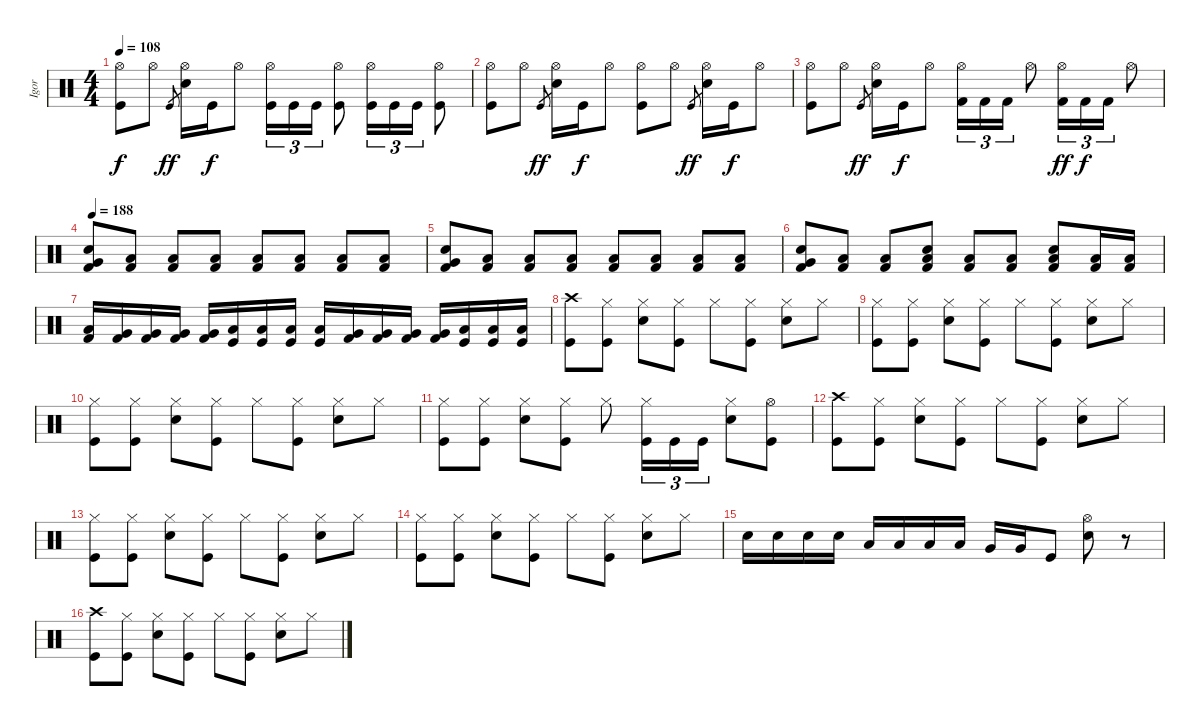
\track ("Igor" "Igor") {instrument percussion}
\staff {score}
\articulation defaults
\ts (4 4)
\tempo 108
\clef neutral
\ks c
("Hi-Hat (open)" "Kick (hit)").8{dy f} "Hi-Hat (open)".8 "Kick (hit)".8{gr dy ff} ("Hi-Hat (open)" "Snare (hit) 2").16 "Kick (hit)".16{dy f} "Hi-Hat (open)".8 ("Hi-Hat (open)" "Kick (hit)").16{tu (3 2)} "Kick (hit)".16{tu (3 2)} "Kick (hit)".16{tu (3 2)} ("Hi-Hat (open)" "Kick (hit)").8 ("Hi-Hat (open)" "Kick (hit)").16{tu (3 2)} "Kick (hit)".16{tu (3 2)} "Kick (hit)".16{tu (3 2)} ("Hi-Hat (open)" "Kick (hit)").8 |
("Hi-Hat (open)" "Kick (hit)").8 "Hi-Hat (open)".8 "Kick (hit)".8{gr dy ff} ("Hi-Hat (open)" "Snare (hit) 2").16 "Kick (hit)".16{dy f} "Hi-Hat (open)".8 ("Hi-Hat (open)" "Kick (hit)").8 "Hi-Hat (open)".8 "Kick (hit)".8{gr dy ff} ("Hi-Hat (open)" "Snare (hit) 2").16 "Kick (hit)".16{dy f} "Hi-Hat (open)".8 |
("Hi-Hat (open)" "Kick (hit)").8 "Hi-Hat (open)".8 "Kick (hit)".8{gr dy ff} ("Hi-Hat (open)" "Snare (hit) 2").16 "Kick (hit)".16{dy f} "Hi-Hat (open)".8 ("Hi-Hat (open)" "Kick (hit) 2").16{tu (3 2)} "Kick (hit) 2".16{tu (3 2)} "Kick (hit) 2".16{tu (3 2)} "Hi-Hat (open)".8 ("Hi-Hat (open)" "Kick (hit) 2").16{tu (3 2) dy ff} "Kick (hit) 2".16{tu (3 2) dy f} "Kick (hit) 2".16{tu (3 2)} "Hi-Hat (open)".8 |
\tempo 188
("Very Low Tom (hit)" "Snare (hit) 2" "Kick (hit) 2").8 ("Low Floor Tom (hit)" "Kick (hit) 2").8 ("Low Floor Tom (hit)" "Kick (hit) 2").8 ("Low Floor Tom (hit)" "Kick (hit) 2").8 ("Low Floor Tom (hit)" "Kick (hit) 2").8 ("Low Floor Tom (hit)" "Kick (hit) 2").8 ("Low Floor Tom (hit)" "Kick (hit) 2").8 ("Low Floor Tom (hit)" "Kick (hit) 2").8 |
("Very Low Tom (hit)" "Snare (hit) 2" "Kick (hit) 2").8 ("Low Floor Tom (hit)" "Kick (hit) 2").8 ("Low Floor Tom (hit)" "Kick (hit) 2").8 ("Low Floor Tom (hit)" "Kick (hit) 2").8 ("Low Floor Tom (hit)" "Kick (hit) 2").8 ("Low Floor Tom (hit)" "Kick (hit) 2").8 ("Low Floor Tom (hit)" "Kick (hit) 2").8 ("Low Floor Tom (hit)" "Kick (hit) 2").8 |
("Very Low Tom (hit)" "Snare (hit) 2" "Kick (hit) 2").8 ("Low Floor Tom (hit)" "Kick (hit) 2").8 ("Low Floor Tom (hit)" "Kick (hit) 2").8 ("Low Floor Tom (hit)" "Snare (hit) 2" "Kick (hit) 2").8 ("Low Floor Tom (hit)" "Kick (hit) 2").8 ("Low Floor Tom (hit)" "Kick (hit) 2").8 ("Low Floor Tom (hit)" "Snare (hit) 2" "Kick (hit) 2").8 ("Low Tom (hit)" "Kick (hit) 2").16 ("Low Tom (hit)" "Kick (hit) 2").16 |
("Low Tom (hit)" "Kick (hit) 2").16 ("Very Low Tom (hit)" "Kick (hit) 2").16 ("Very Low Tom (hit)" "Kick (hit) 2").16 ("Very Low Tom (hit)" "Kick (hit) 2").16 ("Very Low Tom (hit)" "Kick (hit) 2").16 ("Low Floor Tom (hit)" "Kick (hit)").16 ("Low Floor Tom (hit)" "Kick (hit)").16 ("Low Floor Tom (hit)" "Kick (hit)").16 ("Low Floor Tom (hit)" "Kick (hit)").16 ("Very Low Tom (hit)" "Kick (hit) 2").16 ("Very Low Tom (hit)" "Kick (hit) 2").16 ("Very Low Tom (hit)" "Kick (hit) 2").16 ("Very Low Tom (hit)" "Kick (hit) 2").16 ("Low Floor Tom (hit)" "Kick (hit)").16 ("Low Floor Tom (hit)" "Kick (hit)").16 ("Low Floor Tom (hit)" "Kick (hit)").16 |
("Crash high (hit)" "Kick (hit)").8 ("Hi-Hat (closed)" "Kick (hit)").8 ("Hi-Hat (closed)" "Snare (hit) 2").8 ("Hi-Hat (closed)" "Kick (hit)").8 "Hi-Hat (closed)".8 ("Hi-Hat (closed)" "Kick (hit)").8 ("Hi-Hat (closed)" "Snare (hit) 2").8 "Hi-Hat (closed)".8 |
("Hi-Hat (closed)" "Kick (hit)").8 ("Hi-Hat (closed)" "Kick (hit)").8 ("Hi-Hat (closed)" "Snare (hit) 2").8 ("Hi-Hat (closed)" "Kick (hit)").8 "Hi-Hat (closed)".8 ("Hi-Hat (closed)" "Kick (hit)").8 ("Hi-Hat (closed)" "Snare (hit) 2").8 "Hi-Hat (closed)".8 |
("Hi-Hat (closed)" "Kick (hit)").8 ("Hi-Hat (closed)" "Kick (hit)").8 ("Hi-Hat (closed)" "Snare (hit) 2").8 ("Hi-Hat (closed)" "Kick (hit)").8 "Hi-Hat (closed)".8 ("Hi-Hat (closed)" "Kick (hit)").8 ("Hi-Hat (closed)" "Snare (hit) 2").8 "Hi-Hat (closed)".8 |
("Hi-Hat (closed)" "Kick (hit)").8 ("Hi-Hat (closed)" "Kick (hit)").8 ("Hi-Hat (closed)" "Snare (hit) 2").8 ("Hi-Hat (closed)" "Kick (hit)").8 "Hi-Hat (closed)".8 ("Hi-Hat (closed)" "Kick (hit)").16{tu (3 2)} "Kick (hit)".16{tu (3 2)} "Kick (hit)".16{tu (3 2)} ("Hi-Hat (closed)" "Snare (hit) 2").8 ("Hi-Hat (open)" "Kick (hit)").8 |
("Crash high (hit)" "Kick (hit)").8 ("Hi-Hat (closed)" "Kick (hit)").8 ("Hi-Hat (closed)" "Snare (hit) 2").8 ("Hi-Hat (closed)" "Kick (hit)").8 "Hi-Hat (closed)".8 ("Hi-Hat (closed)" "Kick (hit)").8 ("Hi-Hat (closed)" "Snare (hit) 2").8 "Hi-Hat (closed)".8 |
("Hi-Hat (closed)" "Kick (hit)").8 ("Hi-Hat (closed)" "Kick (hit)").8 ("Hi-Hat (closed)" "Snare (hit) 2").8 ("Hi-Hat (closed)" "Kick (hit)").8 "Hi-Hat (closed)".8 ("Hi-Hat (closed)" "Kick (hit)").8 ("Hi-Hat (closed)" "Snare (hit) 2").8 "Hi-Hat (closed)".8 |
("Hi-Hat (closed)" "Kick (hit)").8 ("Hi-Hat (closed)" "Kick (hit)").8 ("Hi-Hat (closed)" "Snare (hit) 2").8 ("Hi-Hat (closed)" "Kick (hit)").8 "Hi-Hat (closed)".8 ("Hi-Hat (closed)" "Kick (hit)").8 ("Hi-Hat (closed)" "Snare (hit) 2").8 "Hi-Hat (closed)".8 |
"Snare (hit) 2".16 "Snare (hit) 2".16 "Snare (hit) 2".16 "Snare (hit) 2".16 "Low Tom (hit)".16 "Low Tom (hit)".16 "Low Tom (hit)".16 "Low Tom (hit)".16 "Very Low Tom (hit)".16 "Very Low Tom (hit)".16 "Kick (hit)".8 ("Hi-Hat (open)" "Snare (hit) 2").8 r.8 |
("Crash high (hit)" "Kick (hit)").8 ("Hi-Hat (closed)" "Kick (hit)").8 ("Hi-Hat (closed)" "Snare (hit) 2").8 ("Hi-Hat (closed)" "Kick (hit)").8 "Hi-Hat (closed)".8 ("Hi-Hat (closed)" "Kick (hit)").8 ("Hi-Hat (closed)" "Snare (hit) 2").8 "Hi-Hat (closed)".8
